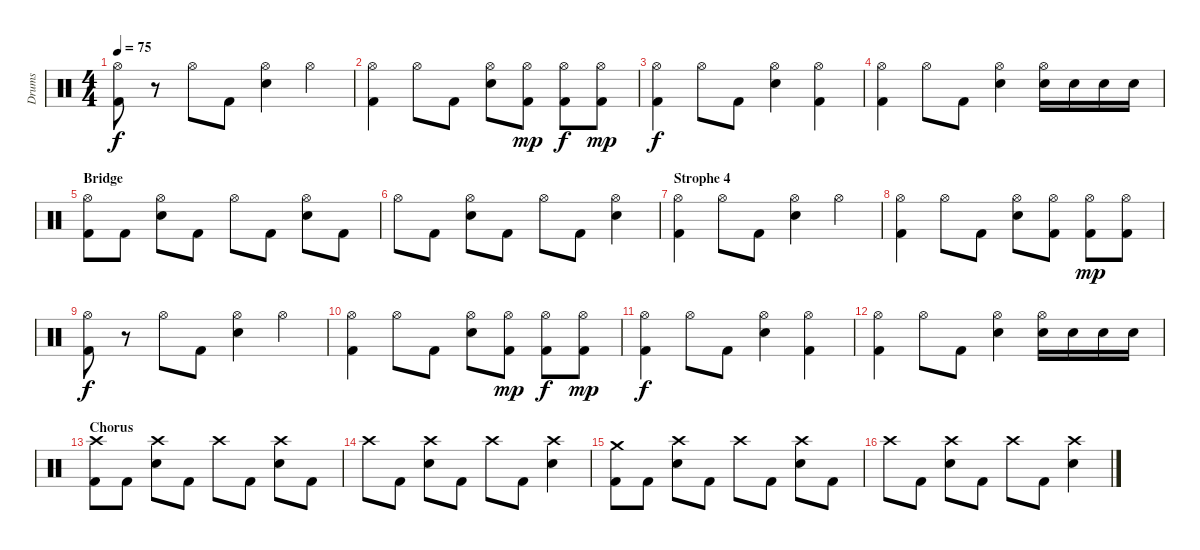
\track ("Drums" "Drums") {instrument percussion}
\staff {score}
\articulation defaults
\ts (4 4)
\tempo 75
\clef neutral
\ks c
("Hi-Hat (open)" "Kick (hit) 2").8{dy f} r.8 "Hi-Hat (open)".8 "Kick (hit) 2".8 ("Hi-Hat (open)" "Snare (hit) 2").4 "Hi-Hat (open)".4 |
("Hi-Hat (open)" "Kick (hit) 2").4 "Hi-Hat (open)".8 "Kick (hit) 2".8 ("Hi-Hat (open)" "Snare (hit) 2").8 ("Hi-Hat (open)" "Kick (hit) 2").8{dy mp} ("Hi-Hat (open)" "Kick (hit) 2").8{dy f} ("Hi-Hat (open)" "Kick (hit) 2").8{dy mp} |
("Hi-Hat (open)" "Kick (hit) 2").4{dy f} "Hi-Hat (open)".8 "Kick (hit) 2".8 ("Hi-Hat (open)" "Snare (hit) 2").4 ("Hi-Hat (open)" "Kick (hit) 2").4 |
("Hi-Hat (open)" "Kick (hit) 2").4 "Hi-Hat (open)".8 "Kick (hit) 2".8 ("Hi-Hat (open)" "Snare (hit) 2").4 ("Hi-Hat (open)" "Snare (hit) 2").16 "Snare (hit) 2".16 "Snare (hit) 2".16 "Snare (hit) 2".16 |
\section ("" "Bridge")
("Hi-Hat (open)" "Kick (hit) 2").8 "Kick (hit) 2".8 ("Hi-Hat (open)" "Snare (hit) 2").8 "Kick (hit) 2".8 "Hi-Hat (open)".8 "Kick (hit) 2".8 ("Hi-Hat (open)" "Snare (hit) 2").8 "Kick (hit) 2".8 |
"Hi-Hat (open)".8 "Kick (hit) 2".8 ("Hi-Hat (open)" "Snare (hit) 2").8 "Kick (hit) 2".8 "Hi-Hat (open)".8 "Kick (hit) 2".8 ("Hi-Hat (open)" "Snare (hit) 2").4 |
\section ("" "Strophe 4")
("Hi-Hat (open)" "Kick (hit) 2").4 "Hi-Hat (open)".8 "Kick (hit) 2".8 ("Hi-Hat (open)" "Snare (hit) 2").4 "Hi-Hat (open)".4 |
("Hi-Hat (open)" "Kick (hit) 2").4 "Hi-Hat (open)".8 "Kick (hit) 2".8 ("Hi-Hat (open)" "Snare (hit) 2").8 ("Hi-Hat (open)" "Kick (hit) 2").8 ("Hi-Hat (open)" "Kick (hit) 2").8{dy mp} ("Hi-Hat (open)" "Kick (hit) 2").8 |
("Hi-Hat (open)" "Kick (hit) 2").8{dy f} r.8 "Hi-Hat (open)".8 "Kick (hit) 2".8 ("Hi-Hat (open)" "Snare (hit) 2").4 "Hi-Hat (open)".4 |
("Hi-Hat (open)" "Kick (hit) 2").4 "Hi-Hat (open)".8 "Kick (hit) 2".8 ("Hi-Hat (open)" "Snare (hit) 2").8 ("Hi-Hat (open)" "Kick (hit) 2").8{dy mp} ("Hi-Hat (open)" "Kick (hit) 2").8{dy f} ("Hi-Hat (open)" "Kick (hit) 2").8{dy mp} |
("Hi-Hat (open)" "Kick (hit) 2").4{dy f} "Hi-Hat (open)".8 "Kick (hit) 2".8 ("Hi-Hat (open)" "Snare (hit) 2").4 ("Hi-Hat (open)" "Kick (hit) 2").4 |
("Hi-Hat (open)" "Kick (hit) 2").4 "Hi-Hat (open)".8 "Kick (hit) 2".8 ("Hi-Hat (open)" "Snare (hit) 2").4 ("Hi-Hat (open)" "Snare (hit) 2").16 "Snare (hit) 2".16 "Snare (hit) 2".16 "Snare (hit) 2".16 |
\section ("" "Chorus")
("Crash high (hit)" "Kick (hit) 2").8 "Kick (hit) 2".8 ("Crash high (hit)" "Snare (hit) 2").8 "Kick (hit) 2".8 "Crash high (hit)".8 "Kick (hit) 2".8 ("Crash high (hit)" "Snare (hit) 2").8 "Kick (hit) 2".8 |
"Crash high (hit)".8 "Kick (hit) 2".8 ("Crash high (hit)" "Snare (hit) 2").8 "Kick (hit) 2".8 "Crash high (hit)".8 "Kick (hit) 2".8 ("Crash high (hit)" "Snare (hit) 2").4 |
("Crash medium (hit)" "Kick (hit) 2").8 "Kick (hit) 2".8 ("Crash high (hit)" "Snare (hit) 2").8 "Kick (hit) 2".8 "Crash high (hit)".8 "Kick (hit) 2".8 ("Crash high (hit)" "Snare (hit) 2").8 "Kick (hit) 2".8 |
"Crash high (hit)".8 "Kick (hit) 2".8 ("Crash high (hit)" "Snare (hit) 2").8 "Kick (hit) 2".8 "Crash high (hit)".8 "Kick (hit) 2".8 ("Crash high (hit)" "Snare (hit) 2").4
